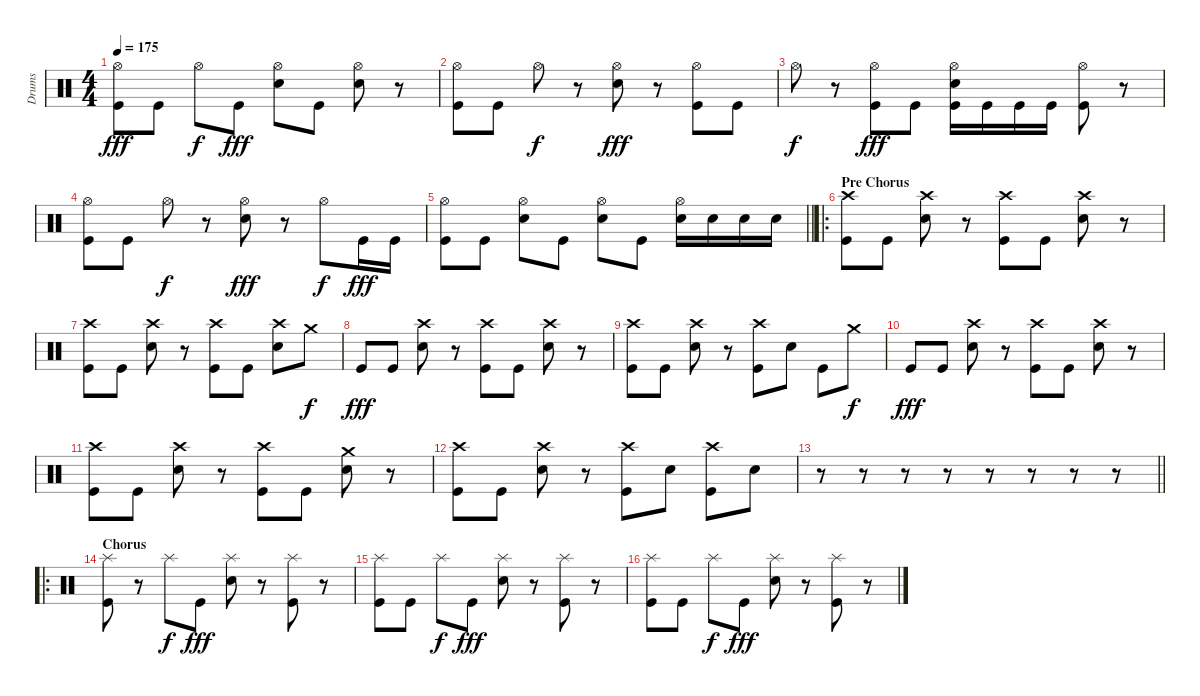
\track ("Drums" "Drums") {instrument percussion}
\staff {score}
\articulation defaults
\ts (4 4)
\tempo 175
\clef neutral
\ks c
("Hi-Hat (open)" "Kick (hit)").8{dy fff} "Kick (hit)".8 "Hi-Hat (open)".8{dy f} "Kick (hit)".8{dy fff} ("Hi-Hat (open)" "Electric Snare (hit)").8 "Kick (hit)".8 ("Hi-Hat (open)" "Electric Snare (hit)").8 r.8 |
("Hi-Hat (open)" "Kick (hit)").8 "Kick (hit)".8 "Hi-Hat (open)".8{dy f} r.8 ("Hi-Hat (open)" "Electric Snare (hit)").8{dy fff} r.8 ("Hi-Hat (open)" "Kick (hit)").8 "Kick (hit)".8 |
"Hi-Hat (open)".8{dy f} r.8 ("Hi-Hat (open)" "Kick (hit)").8{dy fff} "Kick (hit)".8 ("Hi-Hat (open)" "Electric Snare (hit)" "Kick (hit)").16 "Kick (hit)".16 "Kick (hit)".16 "Kick (hit)".16 ("Hi-Hat (open)" "Kick (hit)").8 r.8 |
("Hi-Hat (open)" "Kick (hit)").8 "Kick (hit)".8 "Hi-Hat (open)".8{dy f} r.8 ("Hi-Hat (open)" "Electric Snare (hit)").8{dy fff} r.8 "Hi-Hat (open)".8{dy f} "Kick (hit)".16{dy fff} "Kick (hit)".16 |
\barLineRight lightlight
("Hi-Hat (open)" "Kick (hit)").8 "Kick (hit)".8 ("Hi-Hat (open)" "Electric Snare (hit)").8 "Kick (hit)".8 ("Hi-Hat (open)" "Electric Snare (hit)").8 "Kick (hit)".8 ("Hi-Hat (open)" "Electric Snare (hit)").16 "Electric Snare (hit)".16 "Electric Snare (hit)".16 "Electric Snare (hit)".16 |
\ro
\section ("" "Pre Chorus")
("Crash high (hit)" "Kick (hit)").8 "Kick (hit)".8 ("Crash high (hit)" "Electric Snare (hit)").8 r.8 ("Crash high (hit)" "Kick (hit)").8 "Kick (hit)".8 ("Crash high (hit)" "Electric Snare (hit)").8 r.8 |
("Crash high (hit)" "Kick (hit)").8 "Kick (hit)".8 ("Crash high (hit)" "Electric Snare (hit)").8 r.8 ("Crash high (hit)" "Kick (hit)").8 "Kick (hit)".8 ("Crash high (hit)" "Electric Snare (hit)").8 "Crash medium (hit)".8{dy f} |
"Kick (hit)".8{dy fff} "Kick (hit)".8 ("Crash high (hit)" "Electric Snare (hit)").8 r.8 ("Crash high (hit)" "Kick (hit)").8 "Kick (hit)".8 ("Crash high (hit)" "Electric Snare (hit)").8 r.8 |
("Crash high (hit)" "Kick (hit)").8 "Kick (hit)".8 ("Crash high (hit)" "Electric Snare (hit)").8 r.8 ("Crash high (hit)" "Kick (hit)").8 "Electric Snare (hit)".8 "Kick (hit)".8 "Crash medium (hit)".8{dy f} |
"Kick (hit)".8{dy fff} "Kick (hit)".8 ("Crash high (hit)" "Electric Snare (hit)").8 r.8 ("Crash high (hit)" "Kick (hit)").8 "Kick (hit)".8 ("Crash high (hit)" "Electric Snare (hit)").8 r.8 |
("Crash high (hit)" "Kick (hit)").8 "Kick (hit)".8 ("Crash high (hit)" "Electric Snare (hit)").8 r.8 ("Crash high (hit)" "Kick (hit)").8 "Kick (hit)".8 ("Crash medium (hit)" "Electric Snare (hit)").8 r.8 |
("Crash high (hit)" "Kick (hit)").8 "Kick (hit)".8 ("Crash high (hit)" "Electric Snare (hit)").8 r.8 ("Crash high (hit)" "Kick (hit)").8 "Electric Snare (hit)".8 ("Crash high (hit)" "Kick (hit)").8 "Electric Snare (hit)".8 |
\barLineRight lightlight
r.8 r.8 r.8 r.8 r.8 r.8 r.8 r.8 |
\ro
\section ("" "Chorus")
("Splash (hit)" "Kick (hit)").8 r.8 "Splash (hit)".8{dy f} "Kick (hit)".8{dy fff} ("Splash (hit)" "Electric Snare (hit)").8 r.8 ("Splash (hit)" "Kick (hit)").8 r.8 |
("Splash (hit)" "Kick (hit)").8 "Kick (hit)".8 "Splash (hit)".8{dy f} "Kick (hit)".8{dy fff} ("Splash (hit)" "Electric Snare (hit)").8 r.8 ("Splash (hit)" "Kick (hit)").8 r.8 |
("Splash (hit)" "Kick (hit)").8 "Kick (hit)".8 "Splash (hit)".8{dy f} "Kick (hit)".8{dy fff} ("Splash (hit)" "Electric Snare (hit)").8 r.8 ("Splash (hit)" "Kick (hit)").8 r.8
